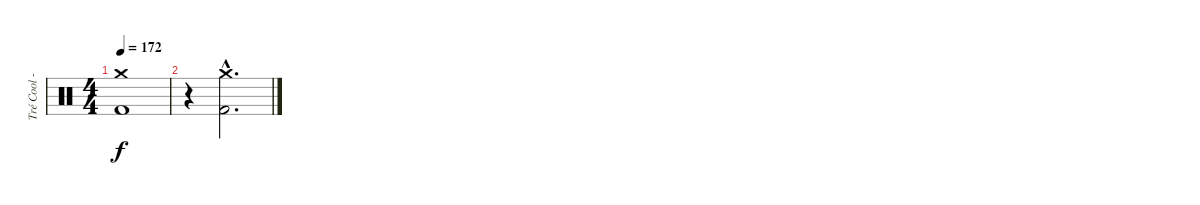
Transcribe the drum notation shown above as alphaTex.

\track ("Tré Cool - Bateria / Drums" "Tré Cool -") {instrument percussion}
\staff {score}
\articulation defaults
\ts (4 4)
\tempo 172
\clef neutral
\ks c
("Crash medium (hit)" "Kick (hit) 2").1{dy f} |
r.4 ("Crash medium (hit)"{hac} "Kick (hit) 2"{hac}).2{d}
